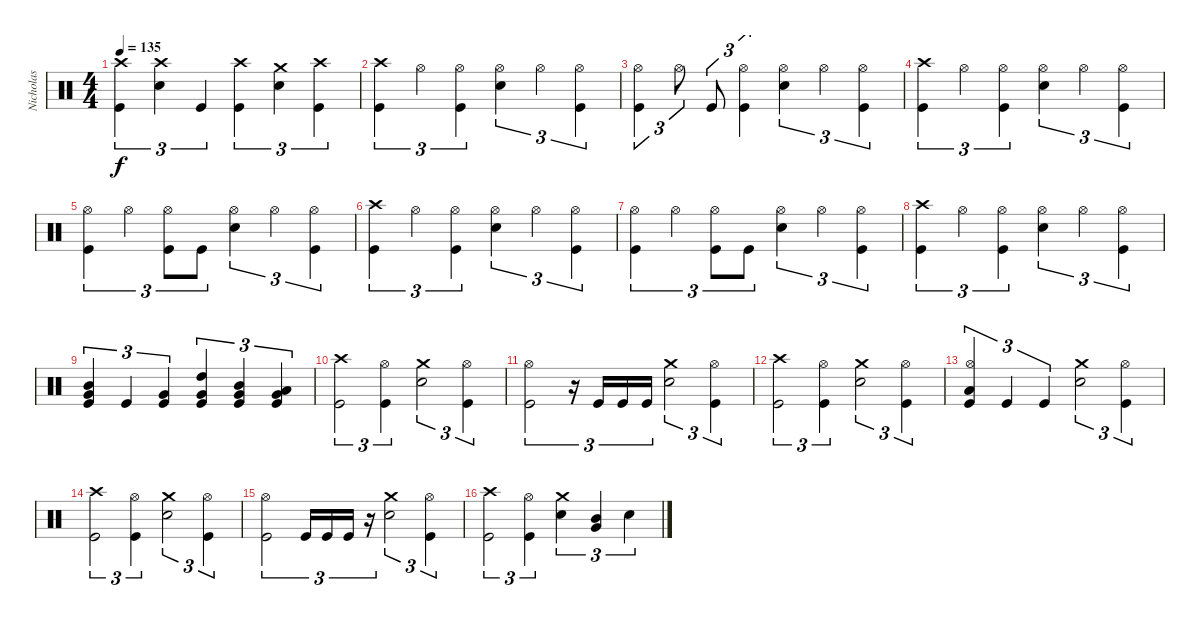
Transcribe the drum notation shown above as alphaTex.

\track ("Nicholas" "Nicholas") {instrument percussion}
\staff {score}
\articulation defaults
\ts (4 4)
\tempo 135
\clef neutral
\ks c
("Crash high (hit)" "Kick (hit)").4{tu (3 2) dy f} ("Crash high (hit)" "Electric Snare (hit)").4{tu (3 2)} "Kick (hit)".4{tu (3 2)} ("Crash high (hit)" "Kick (hit)").4{tu (3 2)} ("Crash medium (hit)" "Electric Snare (hit)").4{tu (3 2)} ("Crash high (hit)" "Kick (hit)").4{tu (3 2)} |
("Crash high (hit)" "Kick (hit)").4{tu (3 2)} "Hi-Hat (open)".4{tu (3 2)} ("Hi-Hat (open)" "Kick (hit)").4{tu (3 2)} ("Hi-Hat (open)" "Electric Snare (hit)").4{tu (3 2)} "Hi-Hat (open)".4{tu (3 2)} ("Hi-Hat (open)" "Kick (hit)").4{tu (3 2)} |
("Hi-Hat (open)" "Kick (hit)").4{tu (3 2)} "Hi-Hat (open)".8{tu (3 2)} "Kick (hit)".8{tu (3 2)} ("Hi-Hat (open)" "Kick (hit)").4{tu (3 2)} ("Hi-Hat (open)" "Electric Snare (hit)").4{tu (3 2)} "Hi-Hat (open)".4{tu (3 2)} ("Hi-Hat (open)" "Kick (hit)").4{tu (3 2)} |
("Crash high (hit)" "Kick (hit)").4{tu (3 2)} "Hi-Hat (open)".4{tu (3 2)} ("Hi-Hat (open)" "Kick (hit)").4{tu (3 2)} ("Hi-Hat (open)" "Electric Snare (hit)").4{tu (3 2)} "Hi-Hat (open)".4{tu (3 2)} ("Hi-Hat (open)" "Kick (hit)").4{tu (3 2)} |
("Hi-Hat (open)" "Kick (hit)").4{tu (3 2)} "Hi-Hat (open)".4{tu (3 2)} ("Hi-Hat (open)" "Kick (hit)").8{tu (3 2)} "Kick (hit)".8{tu (3 2)} ("Hi-Hat (open)" "Electric Snare (hit)").4{tu (3 2)} "Hi-Hat (open)".4{tu (3 2)} ("Hi-Hat (open)" "Kick (hit)").4{tu (3 2)} |
("Crash high (hit)" "Kick (hit)").4{tu (3 2)} "Hi-Hat (open)".4{tu (3 2)} ("Hi-Hat (open)" "Kick (hit)").4{tu (3 2)} ("Hi-Hat (open)" "Electric Snare (hit)").4{tu (3 2)} "Hi-Hat (open)".4{tu (3 2)} ("Hi-Hat (open)" "Kick (hit)").4{tu (3 2)} |
("Hi-Hat (open)" "Kick (hit)").4{tu (3 2)} "Hi-Hat (open)".4{tu (3 2)} ("Hi-Hat (open)" "Kick (hit)").8{tu (3 2)} "Kick (hit)".8{tu (3 2)} ("Hi-Hat (open)" "Electric Snare (hit)").4{tu (3 2)} "Hi-Hat (open)".4{tu (3 2)} ("Hi-Hat (open)" "Kick (hit)").4{tu (3 2)} |
("Crash high (hit)" "Kick (hit)").4{tu (3 2)} "Hi-Hat (open)".4{tu (3 2)} ("Hi-Hat (open)" "Kick (hit)").4{tu (3 2)} ("Hi-Hat (open)" "Electric Snare (hit)").4{tu (3 2)} "Hi-Hat (open)".4{tu (3 2)} ("Hi-Hat (open)" "Kick (hit)").4{tu (3 2)} |
("Mid Tom (hit)" "Very Low Tom (hit)" "Kick (hit)").4{tu (3 2)} "Kick (hit)".4{tu (3 2)} ("Very Low Tom (hit)" "Kick (hit)").4{tu (3 2)} ("High Tom (hit)" "Very Low Tom (hit)" "Kick (hit)").4{tu (3 2)} ("Mid Tom (hit)" "Very Low Tom (hit)" "Kick (hit)").4{tu (3 2)} ("Low Tom (hit)" "Very Low Tom (hit)" "Kick (hit)").4{tu (3 2)} |
("Crash high (hit)" "Kick (hit)").2{tu (3 2)} ("Hi-Hat (open)" "Kick (hit)").4{tu (3 2)} ("Crash medium (hit)" "Electric Snare (hit)").2{tu (3 2)} ("Hi-Hat (open)" "Kick (hit)").4{tu (3 2)} |
("Hi-Hat (open)" "Kick (hit)").2{tu (3 2)} r.16{tu (3 2)} "Kick (hit)".16{tu (3 2)} "Kick (hit)".16{tu (3 2)} "Kick (hit)".16{tu (3 2)} ("Crash medium (hit)" "Electric Snare (hit)").2{tu (3 2)} ("Hi-Hat (open)" "Kick (hit)").4{tu (3 2)} |
("Crash high (hit)" "Kick (hit)").2{tu (3 2)} ("Hi-Hat (open)" "Kick (hit)").4{tu (3 2)} ("Crash medium (hit)" "Electric Snare (hit)").2{tu (3 2)} ("Hi-Hat (open)" "Kick (hit)").4{tu (3 2)} |
("Hi-Hat (open)" "Low Floor Tom (hit)" "Kick (hit)").4{tu (3 2)} "Kick (hit)".4{tu (3 2)} "Kick (hit)".4{tu (3 2)} ("Crash medium (hit)" "Electric Snare (hit)").2{tu (3 2)} ("Hi-Hat (open)" "Kick (hit)").4{tu (3 2)} |
("Crash high (hit)" "Kick (hit)").2{tu (3 2)} ("Hi-Hat (open)" "Kick (hit)").4{tu (3 2)} ("Crash medium (hit)" "Electric Snare (hit)").2{tu (3 2)} ("Hi-Hat (open)" "Kick (hit)").4{tu (3 2)} |
("Hi-Hat (open)" "Kick (hit)").2{tu (3 2)} "Kick (hit)".16{tu (3 2)} "Kick (hit)".16{tu (3 2)} "Kick (hit)".16{tu (3 2)} r.16{tu (3 2)} ("Crash medium (hit)" "Electric Snare (hit)").2{tu (3 2)} ("Hi-Hat (open)" "Kick (hit)").4{tu (3 2)} |
("Crash high (hit)" "Kick (hit)").2{tu (3 2)} ("Hi-Hat (open)" "Kick (hit)").4{tu (3 2)} ("Crash medium (hit)" "Electric Snare (hit)").4{tu (3 2)} ("Mid Tom (hit)" "Very Low Tom (hit)").4{tu (3 2)} "Electric Snare (hit)".4{tu (3 2)}
